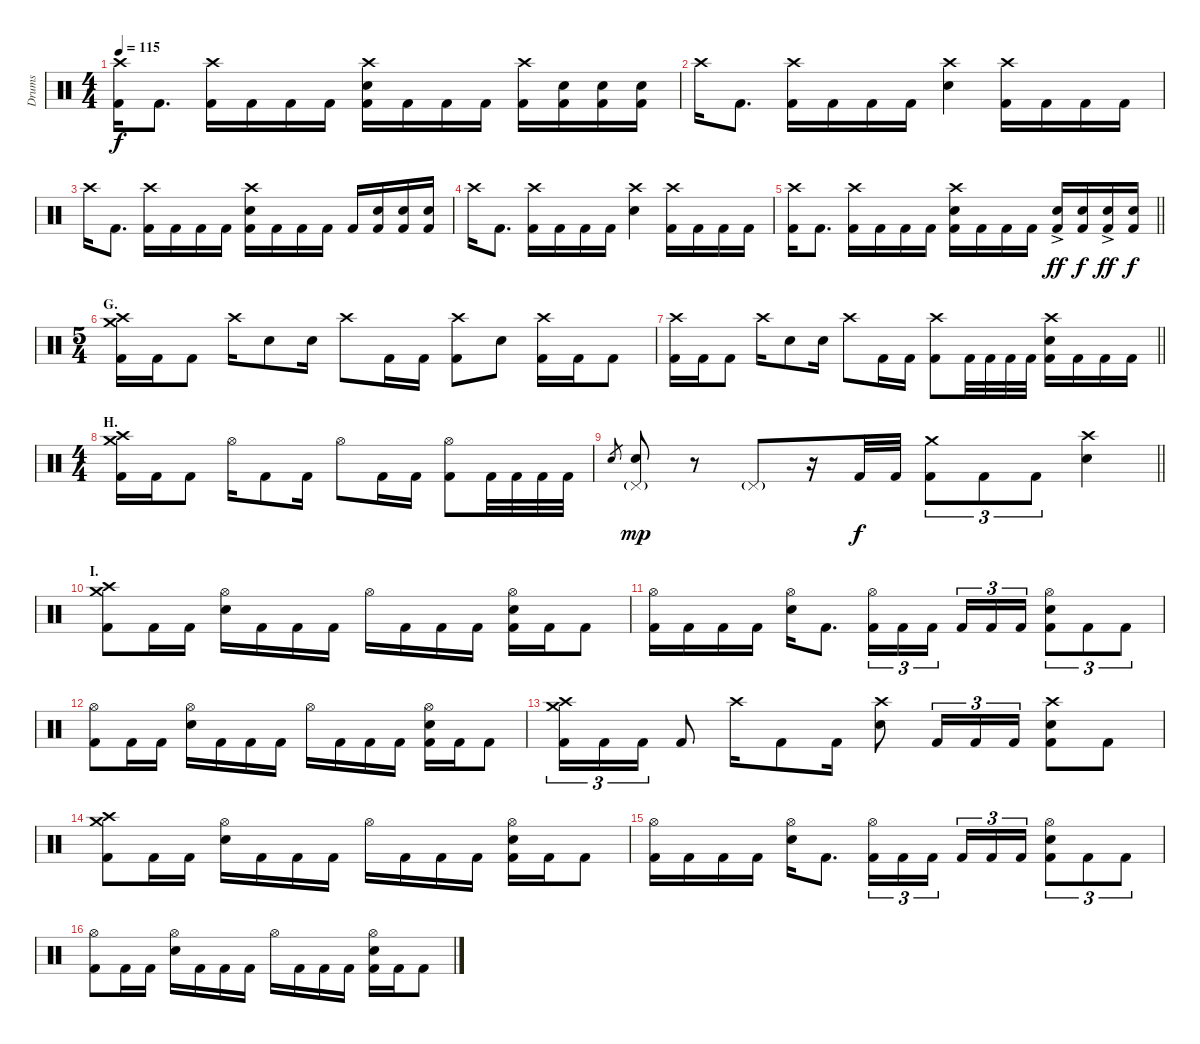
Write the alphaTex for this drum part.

\track ("Drums" "Drums") {instrument percussion}
\staff {score}
\articulation defaults
\ts (4 4)
\tempo 115
\clef neutral
\ks c
("Crash high (hit)" "Kick (hit) 2").16{dy f} "Kick (hit) 2".8{d} ("Crash high (hit)" "Kick (hit) 2").16 "Kick (hit) 2".16 "Kick (hit) 2".16 "Kick (hit) 2".16 ("Crash high (hit)" "Electric Snare (hit)" "Kick (hit) 2").16 "Kick (hit) 2".16 "Kick (hit) 2".16 "Kick (hit) 2".16 ("Crash high (hit)" "Kick (hit) 2").16 ("Electric Snare (hit)" "Kick (hit) 2").16 ("Electric Snare (hit)" "Kick (hit) 2").16 ("Electric Snare (hit)" "Kick (hit) 2").16 |
"Crash high (hit)".16 "Kick (hit) 2".8{d} ("Crash high (hit)" "Kick (hit) 2").16 "Kick (hit) 2".16 "Kick (hit) 2".16 "Kick (hit) 2".16 ("Crash high (hit)" "Electric Snare (hit)").4 ("Crash high (hit)" "Kick (hit) 2").16 "Kick (hit) 2".16 "Kick (hit) 2".16 "Kick (hit) 2".16 |
"Crash high (hit)".16 "Kick (hit) 2".8{d} ("Crash high (hit)" "Kick (hit) 2").16 "Kick (hit) 2".16 "Kick (hit) 2".16 "Kick (hit) 2".16 ("Crash high (hit)" "Electric Snare (hit)" "Kick (hit) 2").16 "Kick (hit) 2".16 "Kick (hit) 2".16 "Kick (hit) 2".16 "Kick (hit) 2".16 ("Electric Snare (hit)" "Kick (hit) 2").16 ("Electric Snare (hit)" "Kick (hit) 2").16 ("Electric Snare (hit)" "Kick (hit) 2").16 |
"Crash high (hit)".16 "Kick (hit) 2".8{d} ("Crash high (hit)" "Kick (hit) 2").16 "Kick (hit) 2".16 "Kick (hit) 2".16 "Kick (hit) 2".16 ("Crash high (hit)" "Electric Snare (hit)").4 ("Crash high (hit)" "Kick (hit) 2").16 "Kick (hit) 2".16 "Kick (hit) 2".16 "Kick (hit) 2".16 |
\barLineRight lightlight
("Crash high (hit)" "Kick (hit) 2").16 "Kick (hit) 2".8{d} ("Crash high (hit)" "Kick (hit) 2").16 "Kick (hit) 2".16 "Kick (hit) 2".16 "Kick (hit) 2".16 ("Crash high (hit)" "Electric Snare (hit)" "Kick (hit) 2").16 "Kick (hit) 2".16 "Kick (hit) 2".16 "Kick (hit) 2".16 ("Electric Snare (hit)"{ac} "Kick (hit) 2").16{dy ff} ("Electric Snare (hit)" "Kick (hit) 2").16{dy f} ("Electric Snare (hit)"{ac} "Kick (hit) 2").16{dy ff} ("Electric Snare (hit)" "Kick (hit) 2").16{dy f} |
\ts (5 4)
\section ("" "G.")
("Crash medium (hit)" "Crash high (hit)" "Kick (hit) 2").16 "Kick (hit) 2".16 "Kick (hit) 2".8 "Crash high (hit)".16 "Electric Snare (hit)".8 "Electric Snare (hit)".16 "Crash high (hit)".8 "Kick (hit) 2".16 "Kick (hit) 2".16 ("Crash high (hit)" "Kick (hit) 2").8 "Electric Snare (hit)".8 ("Crash high (hit)" "Kick (hit) 2").16 "Kick (hit) 2".16 "Kick (hit) 2".8 |
\barLineRight lightlight
("Crash high (hit)" "Kick (hit) 2").16 "Kick (hit) 2".16 "Kick (hit) 2".8 "Crash high (hit)".16 "Electric Snare (hit)".8 "Electric Snare (hit)".16 "Crash high (hit)".8 "Kick (hit) 2".16 "Kick (hit) 2".16 ("Crash high (hit)" "Kick (hit) 2").8 "Kick (hit) 2".32 "Kick (hit) 2".32 "Kick (hit) 2".32 "Kick (hit) 2".32 ("Crash high (hit)" "Electric Snare (hit)" "Kick (hit) 2").16 "Kick (hit) 2".16 "Kick (hit) 2".16 "Kick (hit) 2".16 |
\ts (4 4)
\section ("" "H.")
("Crash medium (hit)" "Crash high (hit)" "Kick (hit) 2").16 "Kick (hit) 2".16 "Kick (hit) 2".8 "Hi-Hat (open)".16 "Kick (hit) 2".8 "Kick (hit) 2".16 "Hi-Hat (open)".8 "Kick (hit) 2".16 "Kick (hit) 2".16 ("Hi-Hat (open)" "Kick (hit) 2").8 "Kick (hit) 2".32 "Kick (hit) 2".32 "Kick (hit) 2".32 "Kick (hit) 2".32 |
\barLineRight lightlight "Electric Snare (hit)".8{gr}
("Pedal Hi-Hat (hit)"{g} "Electric Snare (hit)").8{dy mp} r.8 "Pedal Hi-Hat (hit)"{g}.8 r.16 "Kick (hit) 2".32{dy f} "Kick (hit) 2".32 ("Crash medium (hit)" "Kick (hit) 2").8{tu (3 2)} "Kick (hit) 2".8{tu (3 2)} "Kick (hit) 2".8{tu (3 2)} ("Crash high (hit)" "Electric Snare (hit)").4 |
\section ("" "I.")
("Crash medium (hit)" "Crash high (hit)" "Kick (hit) 2").8 "Kick (hit) 2".16 "Kick (hit) 2".16 ("Hi-Hat (open)" "Electric Snare (hit)").16 "Kick (hit) 2".16 "Kick (hit) 2".16 "Kick (hit) 2".16 "Hi-Hat (open)".16 "Kick (hit) 2".16 "Kick (hit) 2".16 "Kick (hit) 2".16 ("Hi-Hat (open)" "Electric Snare (hit)" "Kick (hit) 2").16 "Kick (hit) 2".16 "Kick (hit) 2".8 |
("Hi-Hat (open)" "Kick (hit) 2").16 "Kick (hit) 2".16 "Kick (hit) 2".16 "Kick (hit) 2".16 ("Hi-Hat (open)" "Electric Snare (hit)").16 "Kick (hit) 2".8{d} ("Hi-Hat (open)" "Kick (hit) 2").16{tu (3 2)} "Kick (hit) 2".16{tu (3 2)} "Kick (hit) 2".16{tu (3 2) beam splitsecondary} "Kick (hit) 2".16{tu (3 2)} "Kick (hit) 2".16{tu (3 2)} "Kick (hit) 2".16{tu (3 2)} ("Hi-Hat (open)" "Electric Snare (hit)" "Kick (hit) 2").8{tu (3 2)} "Kick (hit) 2".8{tu (3 2)} "Kick (hit) 2".8{tu (3 2)} |
("Hi-Hat (open)" "Kick (hit) 2").8 "Kick (hit) 2".16 "Kick (hit) 2".16 ("Hi-Hat (open)" "Electric Snare (hit)").16 "Kick (hit) 2".16 "Kick (hit) 2".16 "Kick (hit) 2".16 "Hi-Hat (open)".16 "Kick (hit) 2".16 "Kick (hit) 2".16 "Kick (hit) 2".16 ("Hi-Hat (open)" "Electric Snare (hit)" "Kick (hit) 2").16 "Kick (hit) 2".16 "Kick (hit) 2".8 |
("Crash medium (hit)" "Crash high (hit)" "Kick (hit) 2").16{tu (3 2)} "Kick (hit) 2".16{tu (3 2)} "Kick (hit) 2".16{tu (3 2)} "Kick (hit) 2".8 "Crash high (hit)".16 "Kick (hit) 2".8 "Kick (hit) 2".16 ("Crash high (hit)" "Electric Snare (hit)").8 "Kick (hit) 2".16{tu (3 2)} "Kick (hit) 2".16{tu (3 2)} "Kick (hit) 2".16{tu (3 2)} ("Crash high (hit)" "Electric Snare (hit)" "Kick (hit) 2").8 "Kick (hit) 2".8 |
("Crash medium (hit)" "Crash high (hit)" "Kick (hit) 2").8 "Kick (hit) 2".16 "Kick (hit) 2".16 ("Hi-Hat (open)" "Electric Snare (hit)").16 "Kick (hit) 2".16 "Kick (hit) 2".16 "Kick (hit) 2".16 "Hi-Hat (open)".16 "Kick (hit) 2".16 "Kick (hit) 2".16 "Kick (hit) 2".16 ("Hi-Hat (open)" "Electric Snare (hit)" "Kick (hit) 2").16 "Kick (hit) 2".16 "Kick (hit) 2".8 |
("Hi-Hat (open)" "Kick (hit) 2").16 "Kick (hit) 2".16 "Kick (hit) 2".16 "Kick (hit) 2".16 ("Hi-Hat (open)" "Electric Snare (hit)").16 "Kick (hit) 2".8{d} ("Hi-Hat (open)" "Kick (hit) 2").16{tu (3 2)} "Kick (hit) 2".16{tu (3 2)} "Kick (hit) 2".16{tu (3 2) beam splitsecondary} "Kick (hit) 2".16{tu (3 2)} "Kick (hit) 2".16{tu (3 2)} "Kick (hit) 2".16{tu (3 2)} ("Hi-Hat (open)" "Electric Snare (hit)" "Kick (hit) 2").8{tu (3 2)} "Kick (hit) 2".8{tu (3 2)} "Kick (hit) 2".8{tu (3 2)} |
("Hi-Hat (open)" "Kick (hit) 2").8 "Kick (hit) 2".16 "Kick (hit) 2".16 ("Hi-Hat (open)" "Electric Snare (hit)").16 "Kick (hit) 2".16 "Kick (hit) 2".16 "Kick (hit) 2".16 "Hi-Hat (open)".16 "Kick (hit) 2".16 "Kick (hit) 2".16 "Kick (hit) 2".16 ("Hi-Hat (open)" "Electric Snare (hit)" "Kick (hit) 2").16 "Kick (hit) 2".16 "Kick (hit) 2".8
